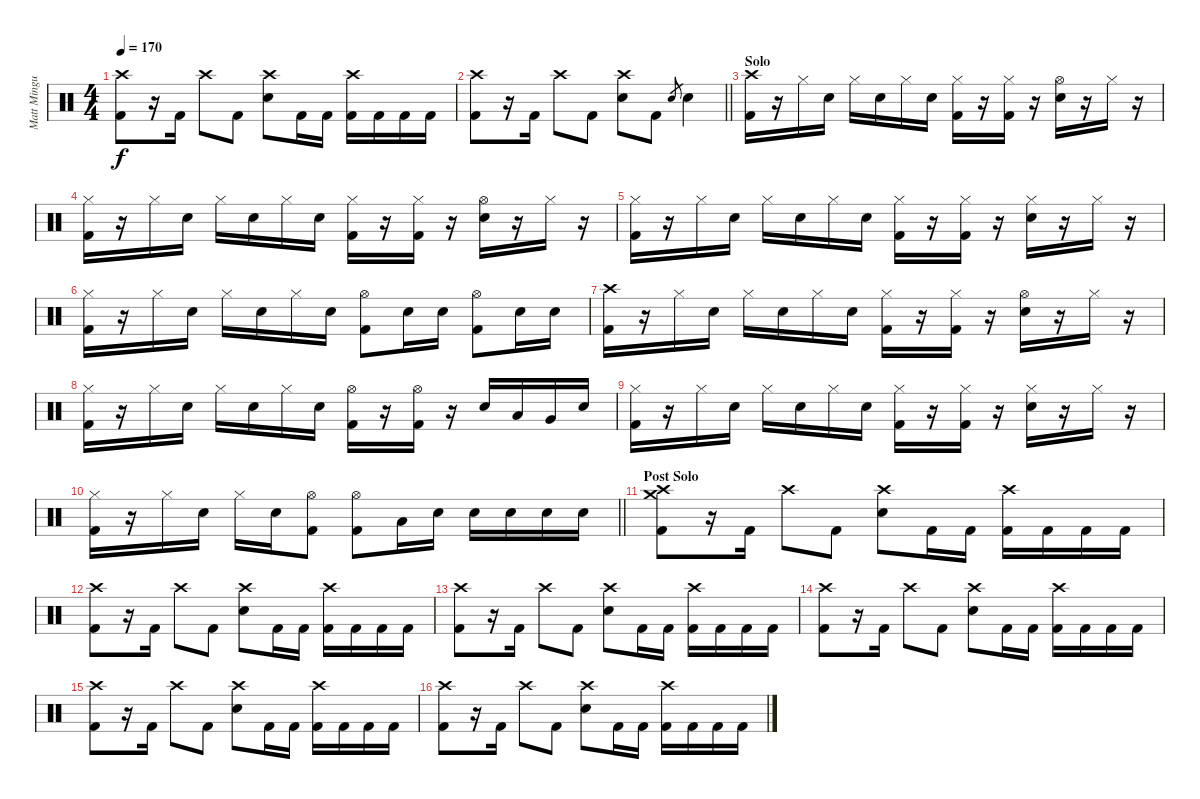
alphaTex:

\track ("Matt Mingus" "Matt Mingu") {instrument percussion}
\staff {score}
\articulation defaults
\ts (4 4)
\tempo 170
\clef neutral
\ks c
("Crash high (hit)" "Kick (hit) 2").8{dy f} r.16 "Kick (hit) 2".16 "Crash high (hit)".8 "Kick (hit) 2".8 ("Crash high (hit)" "Electric Snare (hit)").8 "Kick (hit) 2".16 "Kick (hit) 2".16 ("Crash high (hit)" "Kick (hit) 2").16 "Kick (hit) 2".16 "Kick (hit) 2".16 "Kick (hit) 2".16 |
\barLineRight lightlight
("Crash high (hit)" "Kick (hit) 2").8 r.16 "Kick (hit) 2".16 "Crash high (hit)".8 "Kick (hit) 2".8 ("Crash high (hit)" "Electric Snare (hit)").8 "Kick (hit) 2".8 "Electric Snare (hit)".8{gr} "Electric Snare (hit)".4 |
\section ("" "Solo")
("Crash high (hit)" "Kick (hit) 2").16 r.16 "Hi-Hat (closed)".16 "Electric Snare (hit)".16 "Hi-Hat (closed)".16 "Electric Snare (hit)".16 "Hi-Hat (closed)".16 "Electric Snare (hit)".16 ("Hi-Hat (closed)" "Kick (hit) 2").16 r.16 ("Hi-Hat (closed)" "Kick (hit) 2").16 r.16 ("Hi-Hat (open)" "Electric Snare (hit)").16 r.16 "Hi-Hat (closed)".16 r.16 |
("Hi-Hat (closed)" "Kick (hit) 2").16 r.16 "Hi-Hat (closed)".16 "Electric Snare (hit)".16 "Hi-Hat (closed)".16 "Electric Snare (hit)".16 "Hi-Hat (closed)".16 "Electric Snare (hit)".16 ("Hi-Hat (closed)" "Kick (hit) 2").16 r.16 ("Hi-Hat (closed)" "Kick (hit) 2").16 r.16 ("Hi-Hat (open)" "Electric Snare (hit)").16 r.16 "Hi-Hat (closed)".16 r.16 |
("Hi-Hat (closed)" "Kick (hit) 2").16 r.16 "Hi-Hat (closed)".16 "Electric Snare (hit)".16 "Hi-Hat (closed)".16 "Electric Snare (hit)".16 "Hi-Hat (closed)".16 "Electric Snare (hit)".16 ("Hi-Hat (closed)" "Kick (hit) 2").16 r.16 ("Hi-Hat (closed)" "Kick (hit) 2").16 r.16 ("Hi-Hat (closed)" "Electric Snare (hit)").16 r.16 "Hi-Hat (closed)".16 r.16 |
("Hi-Hat (closed)" "Kick (hit) 2").16 r.16 "Hi-Hat (closed)".16 "Electric Snare (hit)".16 "Hi-Hat (closed)".16 "Electric Snare (hit)".16 "Hi-Hat (closed)".16 "Electric Snare (hit)".16 ("Hi-Hat (open)" "Kick (hit) 2").8 "Electric Snare (hit)".16 "Electric Snare (hit)".16 ("Hi-Hat (open)" "Kick (hit) 2").8 "Electric Snare (hit)".16 "Electric Snare (hit)".16 |
("Crash high (hit)" "Kick (hit) 2").16 r.16 "Hi-Hat (closed)".16 "Electric Snare (hit)".16 "Hi-Hat (closed)".16 "Electric Snare (hit)".16 "Hi-Hat (closed)".16 "Electric Snare (hit)".16 ("Hi-Hat (closed)" "Kick (hit) 2").16 r.16 ("Hi-Hat (closed)" "Kick (hit) 2").16 r.16 ("Hi-Hat (open)" "Electric Snare (hit)").16 r.16 "Hi-Hat (closed)".16 r.16 |
("Hi-Hat (closed)" "Kick (hit) 2").16 r.16 "Hi-Hat (closed)".16 "Electric Snare (hit)".16 "Hi-Hat (closed)".16 "Electric Snare (hit)".16 "Hi-Hat (closed)".16 "Electric Snare (hit)".16 ("Hi-Hat (open)" "Kick (hit) 2").16 r.16 ("Hi-Hat (open)" "Kick (hit) 2").16 r.16 "Electric Snare (hit)".16 "Low Tom (hit)".16 "Very Low Tom (hit)".16 "Electric Snare (hit)".16 |
("Hi-Hat (closed)" "Kick (hit) 2").16 r.16 "Hi-Hat (closed)".16 "Electric Snare (hit)".16 "Hi-Hat (closed)".16 "Electric Snare (hit)".16 "Hi-Hat (closed)".16 "Electric Snare (hit)".16 ("Hi-Hat (closed)" "Kick (hit) 2").16 r.16 ("Hi-Hat (closed)" "Kick (hit) 2").16 r.16 ("Hi-Hat (closed)" "Electric Snare (hit)").16 r.16 "Hi-Hat (closed)".16 r.16 |
\barLineRight lightlight
("Hi-Hat (closed)" "Kick (hit) 2").16 r.16 "Hi-Hat (closed)".16 "Electric Snare (hit)".16 "Hi-Hat (closed)".16 "Electric Snare (hit)".16 ("Hi-Hat (open)" "Kick (hit) 2").8 ("Hi-Hat (open)" "Kick (hit) 2").8 "Low Tom (hit)".16 "Electric Snare (hit)".16 "Electric Snare (hit)".16 "Electric Snare (hit)".16 "Electric Snare (hit)".16 "Electric Snare (hit)".16 |
\section ("" "Post Solo")
("Crash medium (hit)" "Crash high (hit)" "Kick (hit) 2").8 r.16 "Kick (hit) 2".16 "Crash high (hit)".8 "Kick (hit) 2".8 ("Crash high (hit)" "Electric Snare (hit)").8 "Kick (hit) 2".16 "Kick (hit) 2".16 ("Crash high (hit)" "Kick (hit) 2").16 "Kick (hit) 2".16 "Kick (hit) 2".16 "Kick (hit) 2".16 |
("Crash high (hit)" "Kick (hit) 2").8 r.16 "Kick (hit) 2".16 "Crash high (hit)".8 "Kick (hit) 2".8 ("Crash high (hit)" "Electric Snare (hit)").8 "Kick (hit) 2".16 "Kick (hit) 2".16 ("Crash high (hit)" "Kick (hit) 2").16 "Kick (hit) 2".16 "Kick (hit) 2".16 "Kick (hit) 2".16 |
("Crash high (hit)" "Kick (hit) 2").8 r.16 "Kick (hit) 2".16 "Crash high (hit)".8 "Kick (hit) 2".8 ("Crash high (hit)" "Electric Snare (hit)").8 "Kick (hit) 2".16 "Kick (hit) 2".16 ("Crash high (hit)" "Kick (hit) 2").16 "Kick (hit) 2".16 "Kick (hit) 2".16 "Kick (hit) 2".16 |
("Crash high (hit)" "Kick (hit) 2").8 r.16 "Kick (hit) 2".16 "Crash high (hit)".8 "Kick (hit) 2".8 ("Crash high (hit)" "Electric Snare (hit)").8 "Kick (hit) 2".16 "Kick (hit) 2".16 ("Crash high (hit)" "Kick (hit) 2").16 "Kick (hit) 2".16 "Kick (hit) 2".16 "Kick (hit) 2".16 |
("Crash high (hit)" "Kick (hit) 2").8 r.16 "Kick (hit) 2".16 "Crash high (hit)".8 "Kick (hit) 2".8 ("Crash high (hit)" "Electric Snare (hit)").8 "Kick (hit) 2".16 "Kick (hit) 2".16 ("Crash high (hit)" "Kick (hit) 2").16 "Kick (hit) 2".16 "Kick (hit) 2".16 "Kick (hit) 2".16 |
("Crash high (hit)" "Kick (hit) 2").8 r.16 "Kick (hit) 2".16 "Crash high (hit)".8 "Kick (hit) 2".8 ("Crash high (hit)" "Electric Snare (hit)").8 "Kick (hit) 2".16 "Kick (hit) 2".16 ("Crash high (hit)" "Kick (hit) 2").16 "Kick (hit) 2".16 "Kick (hit) 2".16 "Kick (hit) 2".16
